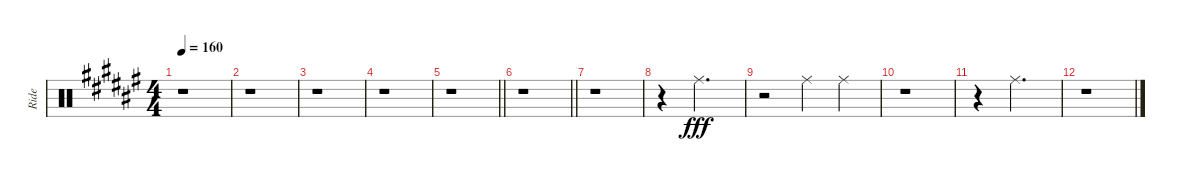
\track ("Ride" "Ride") {instrument percussion}
\staff {score}
\articulation defaults
\ts (4 4)
\tempo 160
\clef neutral
\ks d#minor
r.1{dy fff} |
r.1 |
r.1 |
r.1 |
\barLineRight lightlight
r.1 |
\barLineRight lightlight
r.1 |
r.1 |
r.4 "Ride (middle)".2{d} |
r.2 "Ride (middle)".4 "Ride (middle)".4 |
r.1 |
r.4 "Ride (middle)".2{d} |
r.1
